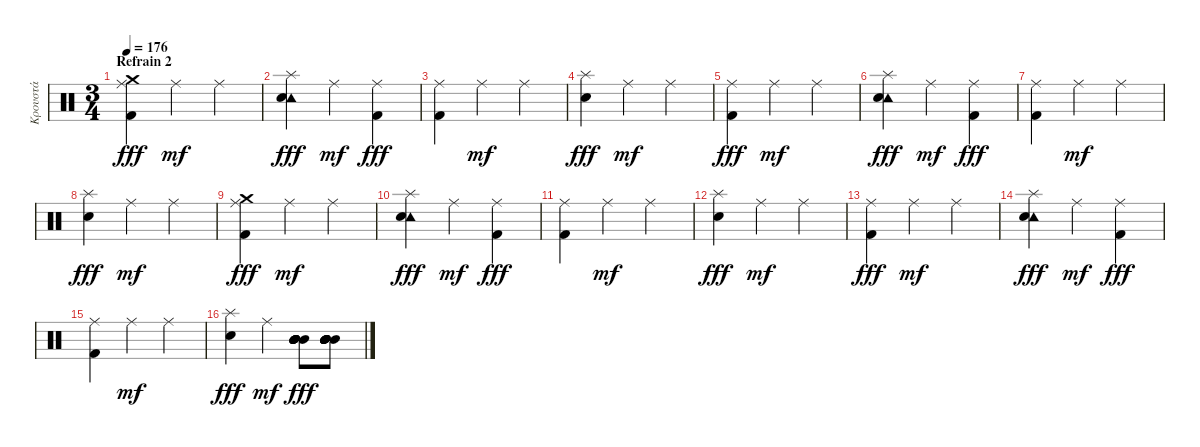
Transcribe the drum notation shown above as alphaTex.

\track ("Κρουστά" "Κρουστά") {instrument percussion}
\staff {score}
\articulation defaults
\ts (3 4)
\section ("" "Refrain 2")
\tempo 176
\clef neutral
\ks c
("Crash medium (hit)" "Ride (middle)" "Kick (hit) 2").4{dy fff} "Ride (middle)".4{dy mf} "Ride (middle)".4 |
("Splash (hit)" "Tambourine (hit)" "Snare (hit) 2").4{dy fff} "Ride (middle)".4{dy mf} ("Ride (middle)" "Kick (hit) 2").4{dy fff} |
("Ride (middle)" "Kick (hit) 2").4 "Ride (middle)".4{dy mf} "Ride (middle)".4 |
("Splash (hit)" "Snare (hit) 2").4{dy fff} "Ride (middle)".4{dy mf} "Ride (middle)".4 |
("Ride (middle)" "Kick (hit) 2").4{dy fff} "Ride (middle)".4{dy mf} "Ride (middle)".4 |
("Splash (hit)" "Tambourine (hit)" "Snare (hit) 2").4{dy fff} "Ride (middle)".4{dy mf} ("Ride (middle)" "Kick (hit) 2").4{dy fff} |
("Ride (middle)" "Kick (hit) 2").4 "Ride (middle)".4{dy mf} "Ride (middle)".4 |
("Splash (hit)" "Snare (hit) 2").4{dy fff} "Ride (middle)".4{dy mf} "Ride (middle)".4 |
("Crash medium (hit)" "Ride (middle)" "Kick (hit) 2").4{dy fff} "Ride (middle)".4{dy mf} "Ride (middle)".4 |
("Splash (hit)" "Tambourine (hit)" "Snare (hit) 2").4{dy fff} "Ride (middle)".4{dy mf} ("Ride (middle)" "Kick (hit) 2").4{dy fff} |
("Ride (middle)" "Kick (hit) 2").4 "Ride (middle)".4{dy mf} "Ride (middle)".4 |
("Splash (hit)" "Snare (hit) 2").4{dy fff} "Ride (middle)".4{dy mf} "Ride (middle)".4 |
("Ride (middle)" "Kick (hit) 2").4{dy fff} "Ride (middle)".4{dy mf} "Ride (middle)".4 |
("Splash (hit)" "Tambourine (hit)" "Snare (hit) 2").4{dy fff} "Ride (middle)".4{dy mf} ("Ride (middle)" "Kick (hit) 2").4{dy fff} |
("Ride (middle)" "Kick (hit) 2").4 "Ride (middle)".4{dy mf} "Ride (middle)".4 |
("Splash (hit)" "Snare (hit) 2").4{dy fff} "Ride (middle)".4{dy mf} ("Mid Tom (hit)" "Mid Tom (hit)" "Mid Tom (hit)" "Mid Tom (hit)" "Mid Tom (hit)" "Mid Tom (hit)").8{dy fff} ("Mid Tom (hit)" "Mid Tom (hit)" "Mid Tom (hit)" "Mid Tom (hit)" "Mid Tom (hit)" "Mid Tom (hit)").8
